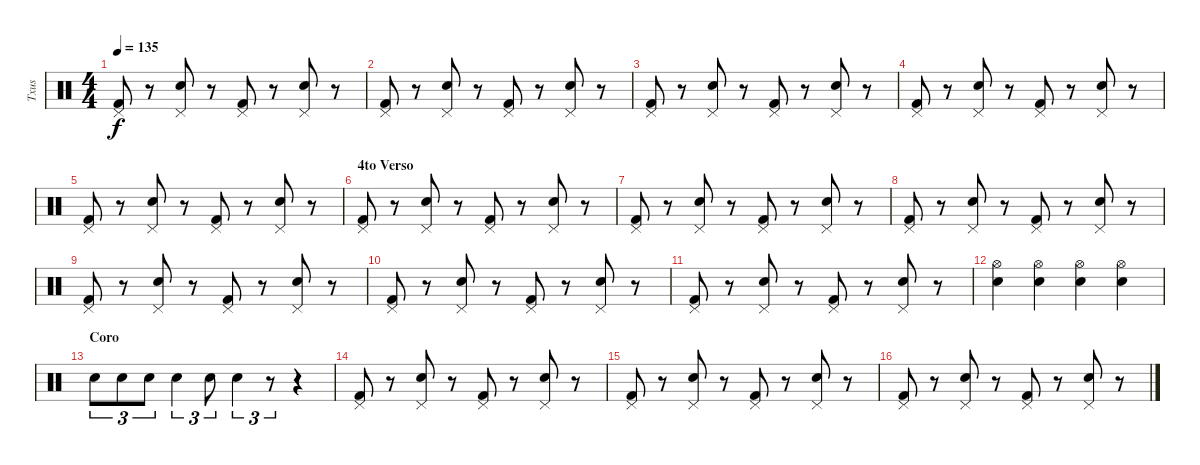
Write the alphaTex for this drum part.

\track ("Txus" "Txus") {instrument percussion}
\staff {score}
\articulation defaults
\ts (4 4)
\tempo 135
\clef neutral
\ks c
("Pedal Hi-Hat (hit)" "Kick (hit) 2").8{dy f} r.8 ("Pedal Hi-Hat (hit)" "Snare (hit) 2").8 r.8 ("Pedal Hi-Hat (hit)" "Kick (hit) 2").8 r.8 ("Pedal Hi-Hat (hit)" "Snare (hit) 2").8 r.8 |
("Pedal Hi-Hat (hit)" "Kick (hit) 2").8 r.8 ("Pedal Hi-Hat (hit)" "Snare (hit) 2").8 r.8 ("Pedal Hi-Hat (hit)" "Kick (hit) 2").8 r.8 ("Pedal Hi-Hat (hit)" "Snare (hit) 2").8 r.8 |
("Pedal Hi-Hat (hit)" "Kick (hit) 2").8 r.8 ("Pedal Hi-Hat (hit)" "Snare (hit) 2").8 r.8 ("Pedal Hi-Hat (hit)" "Kick (hit) 2").8 r.8 ("Pedal Hi-Hat (hit)" "Snare (hit) 2").8 r.8 |
("Pedal Hi-Hat (hit)" "Kick (hit) 2").8 r.8 ("Pedal Hi-Hat (hit)" "Snare (hit) 2").8 r.8 ("Pedal Hi-Hat (hit)" "Kick (hit) 2").8 r.8 ("Pedal Hi-Hat (hit)" "Snare (hit) 2").8 r.8 |
("Pedal Hi-Hat (hit)" "Kick (hit) 2").8 r.8 ("Pedal Hi-Hat (hit)" "Snare (hit) 2").8 r.8 ("Pedal Hi-Hat (hit)" "Kick (hit) 2").8 r.8 ("Pedal Hi-Hat (hit)" "Snare (hit) 2").8 r.8 |
\section ("" "4to Verso")
("Pedal Hi-Hat (hit)" "Kick (hit) 2").8 r.8 ("Pedal Hi-Hat (hit)" "Snare (hit) 2").8 r.8 ("Pedal Hi-Hat (hit)" "Kick (hit) 2").8 r.8 ("Pedal Hi-Hat (hit)" "Snare (hit) 2").8 r.8 |
("Pedal Hi-Hat (hit)" "Kick (hit) 2").8 r.8 ("Pedal Hi-Hat (hit)" "Snare (hit) 2").8 r.8 ("Pedal Hi-Hat (hit)" "Kick (hit) 2").8 r.8 ("Pedal Hi-Hat (hit)" "Snare (hit) 2").8 r.8 |
("Pedal Hi-Hat (hit)" "Kick (hit) 2").8 r.8 ("Pedal Hi-Hat (hit)" "Snare (hit) 2").8 r.8 ("Pedal Hi-Hat (hit)" "Kick (hit) 2").8 r.8 ("Pedal Hi-Hat (hit)" "Snare (hit) 2").8 r.8 |
("Pedal Hi-Hat (hit)" "Kick (hit) 2").8 r.8 ("Pedal Hi-Hat (hit)" "Snare (hit) 2").8 r.8 ("Pedal Hi-Hat (hit)" "Kick (hit) 2").8 r.8 ("Pedal Hi-Hat (hit)" "Snare (hit) 2").8 r.8 |
("Pedal Hi-Hat (hit)" "Kick (hit) 2").8 r.8 ("Pedal Hi-Hat (hit)" "Snare (hit) 2").8 r.8 ("Pedal Hi-Hat (hit)" "Kick (hit) 2").8 r.8 ("Pedal Hi-Hat (hit)" "Snare (hit) 2").8 r.8 |
("Pedal Hi-Hat (hit)" "Kick (hit) 2").8 r.8 ("Pedal Hi-Hat (hit)" "Snare (hit) 2").8 r.8 ("Pedal Hi-Hat (hit)" "Kick (hit) 2").8 r.8 ("Pedal Hi-Hat (hit)" "Snare (hit) 2").8 r.8 |
("Hi-Hat (open)" "Snare (hit) 2").4 ("Hi-Hat (open)" "Snare (hit) 2").4 ("Hi-Hat (open)" "Snare (hit) 2").4 ("Hi-Hat (open)" "Snare (hit) 2").4 |
\section ("" "Coro")
"Snare (hit) 2".8{tu (3 2)} "Snare (hit) 2".8{tu (3 2)} "Snare (hit) 2".8{tu (3 2)} "Snare (hit) 2".4{tu (3 2)} "Snare (hit) 2".8{tu (3 2)} "Snare (hit) 2".4{tu (3 2)} r.8{tu (3 2)} r.4 |
("Pedal Hi-Hat (hit)" "Kick (hit) 2").8 r.8 ("Pedal Hi-Hat (hit)" "Snare (hit) 2").8 r.8 ("Pedal Hi-Hat (hit)" "Kick (hit) 2").8 r.8 ("Pedal Hi-Hat (hit)" "Snare (hit) 2").8 r.8 |
("Pedal Hi-Hat (hit)" "Kick (hit) 2").8 r.8 ("Pedal Hi-Hat (hit)" "Snare (hit) 2").8 r.8 ("Pedal Hi-Hat (hit)" "Kick (hit) 2").8 r.8 ("Pedal Hi-Hat (hit)" "Snare (hit) 2").8 r.8 |
("Pedal Hi-Hat (hit)" "Kick (hit) 2").8 r.8 ("Pedal Hi-Hat (hit)" "Snare (hit) 2").8 r.8 ("Pedal Hi-Hat (hit)" "Kick (hit) 2").8 r.8 ("Pedal Hi-Hat (hit)" "Snare (hit) 2").8 r.8
